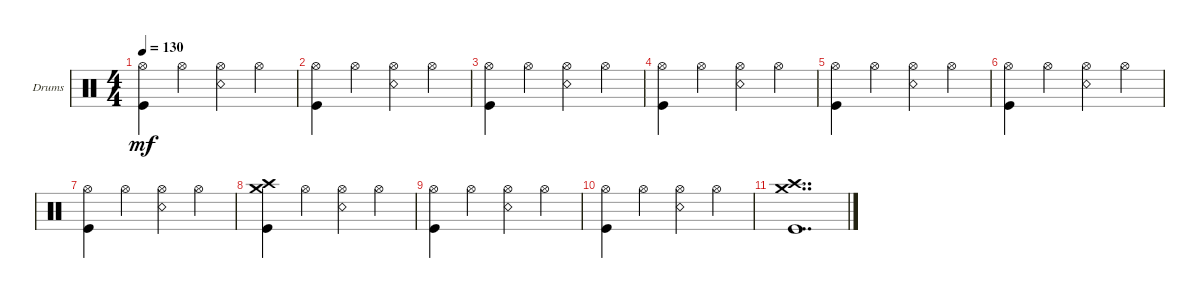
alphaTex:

\defaultSystemsLayout 4
\bracketExtendMode groupsimilarinstruments
\firstSystemTrackNameOrientation horizontal
\otherSystemsTrackNameOrientation horizontal
\track ("Drumkit" "Drums") {instrument percussion}
\staff {score}
\articulation defaults
\ts (4 4)
\tempo 130
\clef neutral
\ks c
("Hi-Hat (open)" "Kick (hit)").4{dy mf} "Hi-Hat (open)".4 ("Hi-Hat (open)" "Snare (rim shot)").4 "Hi-Hat (open)".4 |
("Hi-Hat (open)" "Kick (hit)").4 "Hi-Hat (open)".4 ("Hi-Hat (open)" "Snare (rim shot)").4 "Hi-Hat (open)".4 |
("Hi-Hat (open)" "Kick (hit)").4 "Hi-Hat (open)".4 ("Hi-Hat (open)" "Snare (rim shot)").4 "Hi-Hat (open)".4 |
("Hi-Hat (open)" "Kick (hit)").4 "Hi-Hat (open)".4 ("Hi-Hat (open)" "Snare (rim shot)").4 "Hi-Hat (open)".4 |
("Hi-Hat (open)" "Kick (hit)").4 "Hi-Hat (open)".4 ("Hi-Hat (open)" "Snare (rim shot)").4 "Hi-Hat (open)".4 |
("Hi-Hat (open)" "Kick (hit)").4 "Hi-Hat (open)".4 ("Snare (rim shot)" "Hi-Hat (open)").4 "Hi-Hat (open)".4 |
("Hi-Hat (open)" "Kick (hit)").4 "Hi-Hat (open)".4 ("Hi-Hat (open)" "Snare (rim shot)").4 "Hi-Hat (open)".4 |
("Crash medium (hit)" "Crash high (hit)" "Kick (hit)").4 "Hi-Hat (open)".4 ("Hi-Hat (open)" "Snare (rim shot)").4 "Hi-Hat (open)".4 |
("Hi-Hat (open)" "Kick (hit)").4 "Hi-Hat (open)".4 ("Hi-Hat (open)" "Snare (rim shot)").4 "Hi-Hat (open)".4 |
("Hi-Hat (open)" "Kick (hit)").4 "Hi-Hat (open)".4 ("Hi-Hat (open)" "Snare (rim shot)").4 "Hi-Hat (open)".4 |
("Crash medium (hit)" "Crash high (hit)" "Kick (hit)").1{dd}
